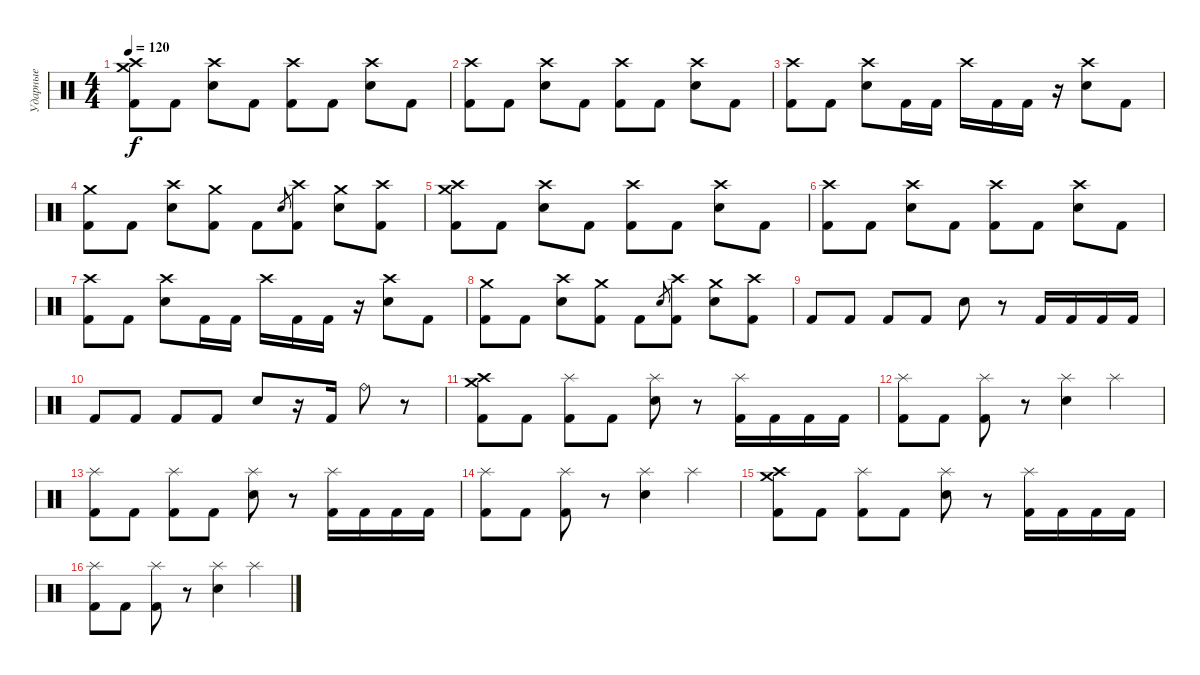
\track ("Ударные" "Ударные") {instrument percussion}
\staff {score}
\articulation defaults
\ts (4 4)
\tempo 120
\clef neutral
\ks c
("Crash medium (hit)" "Crash high (hit)" "Kick (hit) 2").8{dy f} "Kick (hit) 2".8 ("Crash high (hit)" "Electric Snare (hit)").8 "Kick (hit) 2".8 ("Crash high (hit)" "Kick (hit) 2").8 "Kick (hit) 2".8 ("Crash high (hit)" "Electric Snare (hit)").8 "Kick (hit) 2".8 |
("Crash high (hit)" "Kick (hit) 2").8 "Kick (hit) 2".8 ("Crash high (hit)" "Electric Snare (hit)").8 "Kick (hit) 2".8 ("Crash high (hit)" "Kick (hit) 2").8 "Kick (hit) 2".8 ("Crash high (hit)" "Electric Snare (hit)").8 "Kick (hit) 2".8 |
("Crash high (hit)" "Kick (hit) 2").8 "Kick (hit) 2".8 ("Crash high (hit)" "Electric Snare (hit)").8 "Kick (hit) 2".16 "Kick (hit) 2".16 "Crash high (hit)".16 "Kick (hit) 2".16 "Kick (hit) 2".16 r.16 ("Crash high (hit)" "Electric Snare (hit)").8 "Kick (hit) 2".8 |
("Crash medium (hit)" "Kick (hit) 2").8 "Kick (hit) 2".8 ("Crash high (hit)" "Electric Snare (hit)").8 ("Crash medium (hit)" "Kick (hit) 2").8 "Kick (hit) 2".8 "Electric Snare (hit)".8{gr} ("Crash high (hit)" "Kick (hit) 2").8 ("Crash medium (hit)" "Electric Snare (hit)").8 ("Crash high (hit)" "Kick (hit) 2").8 |
("Crash medium (hit)" "Crash high (hit)" "Kick (hit) 2").8 "Kick (hit) 2".8 ("Crash high (hit)" "Electric Snare (hit)").8 "Kick (hit) 2".8 ("Crash high (hit)" "Kick (hit) 2").8 "Kick (hit) 2".8 ("Crash high (hit)" "Electric Snare (hit)").8 "Kick (hit) 2".8 |
("Crash high (hit)" "Kick (hit) 2").8 "Kick (hit) 2".8 ("Crash high (hit)" "Electric Snare (hit)").8 "Kick (hit) 2".8 ("Crash high (hit)" "Kick (hit) 2").8 "Kick (hit) 2".8 ("Crash high (hit)" "Electric Snare (hit)").8 "Kick (hit) 2".8 |
("Crash high (hit)" "Kick (hit) 2").8 "Kick (hit) 2".8 ("Crash high (hit)" "Electric Snare (hit)").8 "Kick (hit) 2".16 "Kick (hit) 2".16 "Crash high (hit)".16 "Kick (hit) 2".16 "Kick (hit) 2".16 r.16 ("Crash high (hit)" "Electric Snare (hit)").8 "Kick (hit) 2".8 |
("Crash medium (hit)" "Kick (hit) 2").8 "Kick (hit) 2".8 ("Crash high (hit)" "Electric Snare (hit)").8 ("Crash medium (hit)" "Kick (hit) 2").8 "Kick (hit) 2".8 "Electric Snare (hit)".8{gr} ("Crash high (hit)" "Kick (hit) 2").8 ("Crash medium (hit)" "Electric Snare (hit)").8 ("Crash high (hit)" "Kick (hit) 2").8 |
"Kick (hit) 2".8 "Kick (hit) 2".8 "Kick (hit) 2".8 "Kick (hit) 2".8 "Electric Snare (hit)".8 r.8 "Kick (hit) 2".16 "Kick (hit) 2".16 "Kick (hit) 2".16 "Kick (hit) 2".16 |
"Kick (hit) 2".8 "Kick (hit) 2".8 "Kick (hit) 2".8 "Kick (hit) 2".8 "Electric Snare (hit)".8 r.16 "Kick (hit) 2".16 "Ride (bell)".8 r.8 |
("Crash medium (hit)" "Crash high (hit)" "Kick (hit) 2").8 "Kick (hit) 2".8 ("Splash (hit)" "Kick (hit) 2").8 "Kick (hit) 2".8 ("Splash (hit)" "Electric Snare (hit)").8 r.8 ("Splash (hit)" "Kick (hit) 2").16 "Kick (hit) 2".16 "Kick (hit) 2".16 "Kick (hit) 2".16 |
("Splash (hit)" "Kick (hit) 2").8 "Kick (hit) 2".8 ("Splash (hit)" "Kick (hit) 2").8 r.8 ("Splash (hit)" "Electric Snare (hit)").4 "Splash (hit)".4 |
("Splash (hit)" "Kick (hit) 2").8 "Kick (hit) 2".8 ("Splash (hit)" "Kick (hit) 2").8 "Kick (hit) 2".8 ("Splash (hit)" "Electric Snare (hit)").8 r.8 ("Splash (hit)" "Kick (hit) 2").16 "Kick (hit) 2".16 "Kick (hit) 2".16 "Kick (hit) 2".16 |
("Splash (hit)" "Kick (hit) 2").8 "Kick (hit) 2".8 ("Splash (hit)" "Kick (hit) 2").8 r.8 ("Splash (hit)" "Electric Snare (hit)").4 "Splash (hit)".4 |
("Crash medium (hit)" "Crash high (hit)" "Kick (hit) 2").8 "Kick (hit) 2".8 ("Splash (hit)" "Kick (hit) 2").8 "Kick (hit) 2".8 ("Splash (hit)" "Electric Snare (hit)").8 r.8 ("Splash (hit)" "Kick (hit) 2").16 "Kick (hit) 2".16 "Kick (hit) 2".16 "Kick (hit) 2".16 |
("Splash (hit)" "Kick (hit) 2").8 "Kick (hit) 2".8 ("Splash (hit)" "Kick (hit) 2").8 r.8 ("Splash (hit)" "Electric Snare (hit)").4 "Splash (hit)".4
